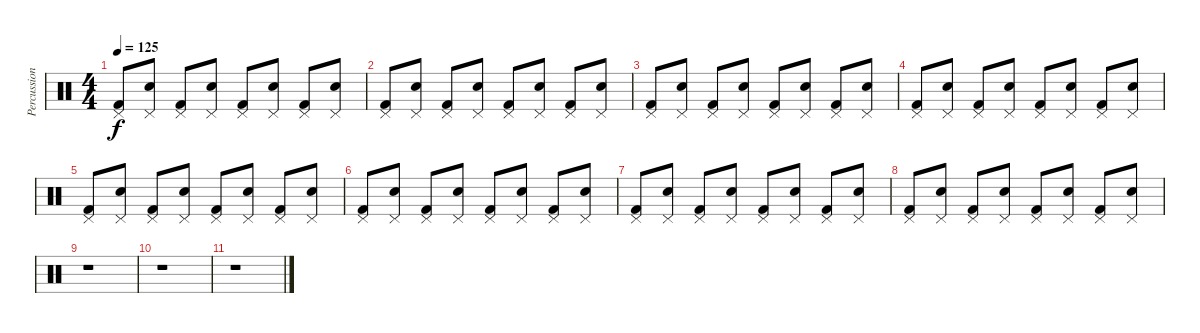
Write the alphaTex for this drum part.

\track ("Percussions" "Percussion") {instrument percussion}
\staff {score}
\articulation defaults
\ts (4 4)
\tempo 125
\clef neutral
\ks c
("Pedal Hi-Hat (hit)" "Kick (hit) 2").8{dy f} ("Pedal Hi-Hat (hit)" "Electric Snare (hit)").8 ("Pedal Hi-Hat (hit)" "Kick (hit) 2").8 ("Pedal Hi-Hat (hit)" "Electric Snare (hit)").8 ("Pedal Hi-Hat (hit)" "Kick (hit) 2").8 ("Pedal Hi-Hat (hit)" "Electric Snare (hit)").8 ("Pedal Hi-Hat (hit)" "Kick (hit) 2").8 ("Pedal Hi-Hat (hit)" "Electric Snare (hit)").8 |
("Pedal Hi-Hat (hit)" "Kick (hit) 2").8 ("Pedal Hi-Hat (hit)" "Electric Snare (hit)").8 ("Pedal Hi-Hat (hit)" "Kick (hit) 2").8 ("Pedal Hi-Hat (hit)" "Electric Snare (hit)").8 ("Pedal Hi-Hat (hit)" "Kick (hit) 2").8 ("Pedal Hi-Hat (hit)" "Electric Snare (hit)").8 ("Pedal Hi-Hat (hit)" "Kick (hit) 2").8 ("Pedal Hi-Hat (hit)" "Electric Snare (hit)").8 |
("Pedal Hi-Hat (hit)" "Kick (hit) 2").8 ("Pedal Hi-Hat (hit)" "Electric Snare (hit)").8 ("Pedal Hi-Hat (hit)" "Kick (hit) 2").8 ("Pedal Hi-Hat (hit)" "Electric Snare (hit)").8 ("Pedal Hi-Hat (hit)" "Kick (hit) 2").8 ("Pedal Hi-Hat (hit)" "Electric Snare (hit)").8 ("Pedal Hi-Hat (hit)" "Kick (hit) 2").8 ("Pedal Hi-Hat (hit)" "Electric Snare (hit)").8 |
("Pedal Hi-Hat (hit)" "Kick (hit) 2").8 ("Pedal Hi-Hat (hit)" "Electric Snare (hit)").8 ("Pedal Hi-Hat (hit)" "Kick (hit) 2").8 ("Pedal Hi-Hat (hit)" "Electric Snare (hit)").8 ("Pedal Hi-Hat (hit)" "Kick (hit) 2").8 ("Pedal Hi-Hat (hit)" "Electric Snare (hit)").8 ("Pedal Hi-Hat (hit)" "Kick (hit) 2").8 ("Pedal Hi-Hat (hit)" "Electric Snare (hit)").8 |
("Pedal Hi-Hat (hit)" "Kick (hit) 2").8 ("Pedal Hi-Hat (hit)" "Electric Snare (hit)").8 ("Pedal Hi-Hat (hit)" "Kick (hit) 2").8 ("Pedal Hi-Hat (hit)" "Electric Snare (hit)").8 ("Pedal Hi-Hat (hit)" "Kick (hit) 2").8 ("Pedal Hi-Hat (hit)" "Electric Snare (hit)").8 ("Pedal Hi-Hat (hit)" "Kick (hit) 2").8 ("Pedal Hi-Hat (hit)" "Electric Snare (hit)").8 |
("Pedal Hi-Hat (hit)" "Kick (hit) 2").8 ("Pedal Hi-Hat (hit)" "Electric Snare (hit)").8 ("Pedal Hi-Hat (hit)" "Kick (hit) 2").8 ("Pedal Hi-Hat (hit)" "Electric Snare (hit)").8 ("Pedal Hi-Hat (hit)" "Kick (hit) 2").8 ("Pedal Hi-Hat (hit)" "Electric Snare (hit)").8 ("Pedal Hi-Hat (hit)" "Kick (hit) 2").8 ("Pedal Hi-Hat (hit)" "Electric Snare (hit)").8 |
("Pedal Hi-Hat (hit)" "Kick (hit) 2").8 ("Pedal Hi-Hat (hit)" "Electric Snare (hit)").8 ("Pedal Hi-Hat (hit)" "Kick (hit) 2").8 ("Pedal Hi-Hat (hit)" "Electric Snare (hit)").8 ("Pedal Hi-Hat (hit)" "Kick (hit) 2").8 ("Pedal Hi-Hat (hit)" "Electric Snare (hit)").8 ("Pedal Hi-Hat (hit)" "Kick (hit) 2").8 ("Pedal Hi-Hat (hit)" "Electric Snare (hit)").8 |
("Pedal Hi-Hat (hit)" "Kick (hit) 2").8 ("Pedal Hi-Hat (hit)" "Electric Snare (hit)").8 ("Pedal Hi-Hat (hit)" "Kick (hit) 2").8 ("Pedal Hi-Hat (hit)" "Electric Snare (hit)").8 ("Pedal Hi-Hat (hit)" "Kick (hit) 2").8 ("Pedal Hi-Hat (hit)" "Electric Snare (hit)").8 ("Pedal Hi-Hat (hit)" "Kick (hit) 2").8 ("Pedal Hi-Hat (hit)" "Electric Snare (hit)").8 |
r.1 |
r.1 |
r.1
